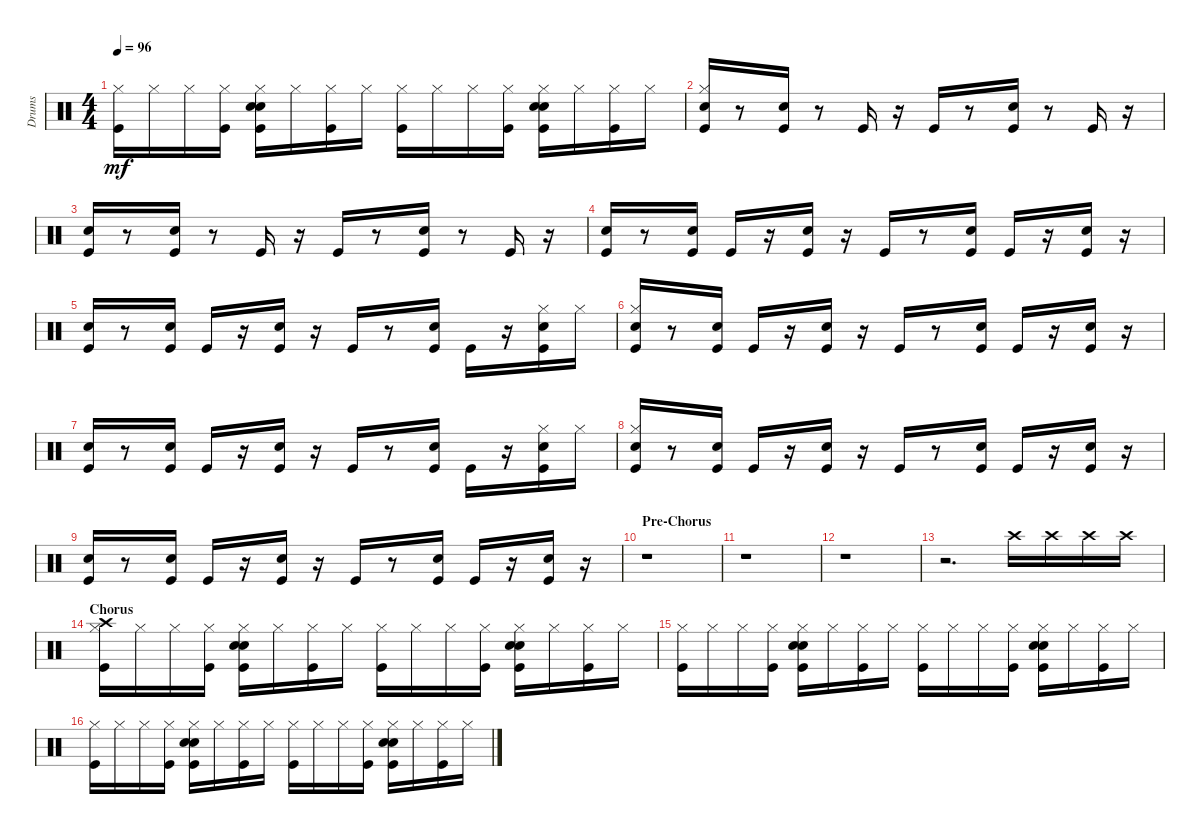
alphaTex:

\track ("Drums" "Drums") {instrument percussion}
\staff {score}
\articulation defaults
\ts (4 4)
\tempo 96
\clef neutral
\ks aminor
("Kick (hit)" "Hi-Hat (closed)").16{dy mf} "Hi-Hat (closed)".16 "Hi-Hat (closed)".16 ("Kick (hit)" "Hi-Hat (closed)").16 ("Kick (hit)" "Hand Clap (hit)" "Electric Snare (hit)" "Hi-Hat (closed)").16 "Hi-Hat (closed)".16 ("Kick (hit)" "Hi-Hat (closed)").16 "Hi-Hat (closed)".16 ("Kick (hit)" "Hi-Hat (closed)").16 "Hi-Hat (closed)".16 "Hi-Hat (closed)".16 ("Kick (hit)" "Hi-Hat (closed)").16 ("Kick (hit)" "Hand Clap (hit)" "Electric Snare (hit)" "Hi-Hat (closed)").16 "Hi-Hat (closed)".16 ("Kick (hit)" "Hi-Hat (closed)").16 "Hi-Hat (closed)".16 |
("Kick (hit)" "Hand Clap (hit)" "Hi-Hat (closed)").16 r.8 ("Kick (hit)" "Hand Clap (hit)").16 r.8 "Kick (hit)".16 r.16 "Kick (hit)".16 r.8 ("Kick (hit)" "Hand Clap (hit)").16 r.8 "Kick (hit)".16 r.16 |
("Kick (hit)" "Hand Clap (hit)").16 r.8 ("Kick (hit)" "Hand Clap (hit)").16 r.8 "Kick (hit)".16 r.16 "Kick (hit)".16 r.8 ("Kick (hit)" "Hand Clap (hit)").16 r.8 "Kick (hit)".16 r.16 |
("Kick (hit)" "Hand Clap (hit)").16 r.8 ("Kick (hit)" "Hand Clap (hit)").16 "Kick (hit)".16 r.16 ("Kick (hit)" "Electric Snare (hit)").16 r.16 "Kick (hit)".16 r.8 ("Kick (hit)" "Hand Clap (hit)").16 "Kick (hit)".16 r.16 ("Kick (hit)" "Electric Snare (hit)").16 r.16 |
("Kick (hit)" "Hand Clap (hit)").16 r.8 ("Kick (hit)" "Hand Clap (hit)").16 "Kick (hit)".16 r.16 ("Kick (hit)" "Electric Snare (hit)").16 r.16 "Kick (hit)".16 r.8 ("Kick (hit)" "Hand Clap (hit)").16 "Kick (hit)".16 r.16 ("Kick (hit)" "Electric Snare (hit)" "Hi-Hat (closed)").16 "Hi-Hat (closed)".16 |
("Kick (hit)" "Hand Clap (hit)" "Hi-Hat (closed)").16 r.8 ("Kick (hit)" "Hand Clap (hit)").16 "Kick (hit)".16 r.16 ("Kick (hit)" "Electric Snare (hit)").16 r.16 "Kick (hit)".16 r.8 ("Kick (hit)" "Hand Clap (hit)").16 "Kick (hit)".16 r.16 ("Kick (hit)" "Electric Snare (hit)").16 r.16 |
("Kick (hit)" "Hand Clap (hit)").16 r.8 ("Kick (hit)" "Hand Clap (hit)").16 "Kick (hit)".16 r.16 ("Kick (hit)" "Electric Snare (hit)").16 r.16 "Kick (hit)".16 r.8 ("Kick (hit)" "Hand Clap (hit)").16 "Kick (hit)".16 r.16 ("Kick (hit)" "Electric Snare (hit)" "Hi-Hat (closed)").16 "Hi-Hat (closed)".16 |
("Kick (hit)" "Hand Clap (hit)" "Hi-Hat (closed)").16 r.8 ("Kick (hit)" "Hand Clap (hit)").16 "Kick (hit)".16 r.16 ("Kick (hit)" "Electric Snare (hit)").16 r.16 "Kick (hit)".16 r.8 ("Kick (hit)" "Hand Clap (hit)").16 "Kick (hit)".16 r.16 ("Kick (hit)" "Electric Snare (hit)").16 r.16 |
("Kick (hit)" "Hand Clap (hit)").16 r.8 ("Kick (hit)" "Hand Clap (hit)").16 "Kick (hit)".16 r.16 ("Kick (hit)" "Electric Snare (hit)").16 r.16 "Kick (hit)".16 r.8 ("Kick (hit)" "Hand Clap (hit)").16 "Kick (hit)".16 r.16 ("Kick (hit)" "Electric Snare (hit)").16 r.16 |
\section ("" "Pre-Chorus")
r.1 |
r.1 |
r.1 |
r.2{d} "Crash high (hit)".16 "Crash high (hit)".16 "Crash high (hit)".16 "Crash high (hit)".16 |
\section ("" "Chorus")
("Kick (hit)" "Hi-Hat (closed)" "Crash high (hit)").16 "Hi-Hat (closed)".16 "Hi-Hat (closed)".16 ("Kick (hit)" "Hi-Hat (closed)").16 ("Kick (hit)" "Hand Clap (hit)" "Electric Snare (hit)" "Hi-Hat (closed)").16 "Hi-Hat (closed)".16 ("Kick (hit)" "Hi-Hat (closed)").16 "Hi-Hat (closed)".16 ("Kick (hit)" "Hi-Hat (closed)").16 "Hi-Hat (closed)".16 "Hi-Hat (closed)".16 ("Kick (hit)" "Hi-Hat (closed)").16 ("Kick (hit)" "Hand Clap (hit)" "Electric Snare (hit)" "Hi-Hat (closed)").16 "Hi-Hat (closed)".16 ("Kick (hit)" "Hi-Hat (closed)").16 "Hi-Hat (closed)".16 |
("Kick (hit)" "Hi-Hat (closed)").16 "Hi-Hat (closed)".16 "Hi-Hat (closed)".16 ("Kick (hit)" "Hi-Hat (closed)").16 ("Kick (hit)" "Hand Clap (hit)" "Electric Snare (hit)" "Hi-Hat (closed)").16 "Hi-Hat (closed)".16 ("Kick (hit)" "Hi-Hat (closed)").16 "Hi-Hat (closed)".16 ("Kick (hit)" "Hi-Hat (closed)").16 "Hi-Hat (closed)".16 "Hi-Hat (closed)".16 ("Kick (hit)" "Hi-Hat (closed)").16 ("Kick (hit)" "Hand Clap (hit)" "Electric Snare (hit)" "Hi-Hat (closed)").16 "Hi-Hat (closed)".16 ("Kick (hit)" "Hi-Hat (closed)").16 "Hi-Hat (closed)".16 |
("Kick (hit)" "Hi-Hat (closed)").16 "Hi-Hat (closed)".16 "Hi-Hat (closed)".16 ("Kick (hit)" "Hi-Hat (closed)").16 ("Kick (hit)" "Hand Clap (hit)" "Electric Snare (hit)" "Hi-Hat (closed)").16 "Hi-Hat (closed)".16 ("Kick (hit)" "Hi-Hat (closed)").16 "Hi-Hat (closed)".16 ("Kick (hit)" "Hi-Hat (closed)").16 "Hi-Hat (closed)".16 "Hi-Hat (closed)".16 ("Kick (hit)" "Hi-Hat (closed)").16 ("Kick (hit)" "Hand Clap (hit)" "Electric Snare (hit)" "Hi-Hat (closed)").16 "Hi-Hat (closed)".16 ("Kick (hit)" "Hi-Hat (closed)").16 "Hi-Hat (closed)".16
